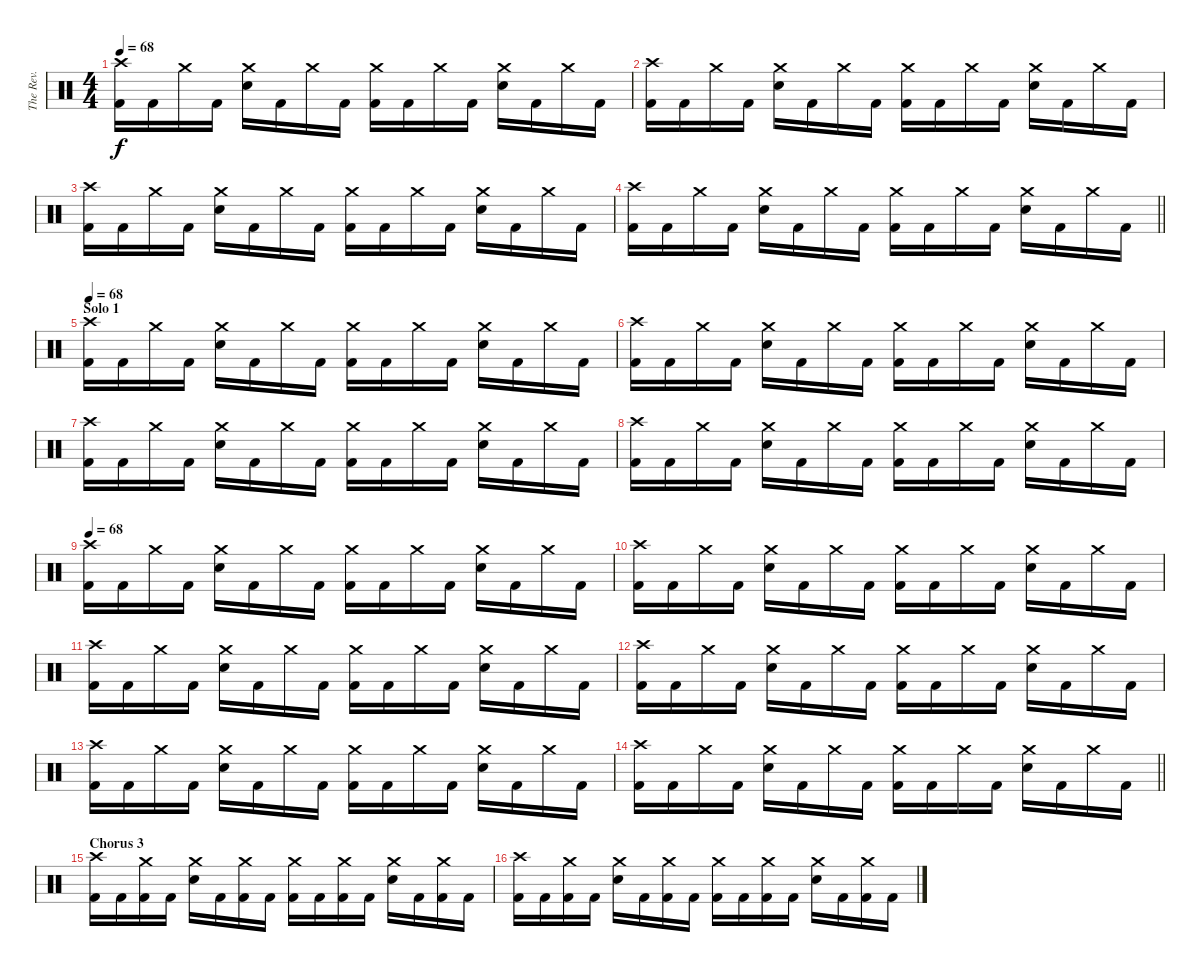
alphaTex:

\track ("The Rev." "The Rev.") {instrument percussion}
\staff {score}
\articulation defaults
\ts (4 4)
\tempo 68
\clef neutral
\ks c
("Crash high (hit)" "Kick (hit) 2").16{dy f} "Kick (hit) 2".16 "Crash medium (hit)".16 "Kick (hit) 2".16 ("Crash medium (hit)" "Electric Snare (hit)").16 "Kick (hit) 2".16 "Crash medium (hit)".16 "Kick (hit) 2".16 ("Crash medium (hit)" "Kick (hit) 2").16 "Kick (hit) 2".16 "Crash medium (hit)".16 "Kick (hit) 2".16 ("Crash medium (hit)" "Electric Snare (hit)").16 "Kick (hit) 2".16 "Crash medium (hit)".16 "Kick (hit) 2".16 |
("Crash high (hit)" "Kick (hit) 2").16 "Kick (hit) 2".16 "Crash medium (hit)".16 "Kick (hit) 2".16 ("Crash medium (hit)" "Electric Snare (hit)").16 "Kick (hit) 2".16 "Crash medium (hit)".16 "Kick (hit) 2".16 ("Crash medium (hit)" "Kick (hit) 2").16 "Kick (hit) 2".16 "Crash medium (hit)".16 "Kick (hit) 2".16 ("Crash medium (hit)" "Electric Snare (hit)").16 "Kick (hit) 2".16 "Crash medium (hit)".16 "Kick (hit) 2".16 |
("Crash high (hit)" "Kick (hit) 2").16 "Kick (hit) 2".16 "Crash medium (hit)".16 "Kick (hit) 2".16 ("Crash medium (hit)" "Electric Snare (hit)").16 "Kick (hit) 2".16 "Crash medium (hit)".16 "Kick (hit) 2".16 ("Crash medium (hit)" "Kick (hit) 2").16 "Kick (hit) 2".16 "Crash medium (hit)".16 "Kick (hit) 2".16 ("Crash medium (hit)" "Electric Snare (hit)").16 "Kick (hit) 2".16 "Crash medium (hit)".16 "Kick (hit) 2".16 |
\barLineRight lightlight
("Crash high (hit)" "Kick (hit) 2").16 "Kick (hit) 2".16 "Crash medium (hit)".16 "Kick (hit) 2".16 ("Crash medium (hit)" "Electric Snare (hit)").16 "Kick (hit) 2".16 "Crash medium (hit)".16 "Kick (hit) 2".16 ("Crash medium (hit)" "Kick (hit) 2").16 "Kick (hit) 2".16 "Crash medium (hit)".16 "Kick (hit) 2".16 ("Crash medium (hit)" "Electric Snare (hit)").16 "Kick (hit) 2".16 "Crash medium (hit)".16 "Kick (hit) 2".16 |
\section ("" "Solo 1")
\tempo 68
("Crash high (hit)" "Kick (hit) 2").16 "Kick (hit) 2".16 "Crash medium (hit)".16 "Kick (hit) 2".16 ("Crash medium (hit)" "Electric Snare (hit)").16 "Kick (hit) 2".16 "Crash medium (hit)".16 "Kick (hit) 2".16 ("Crash medium (hit)" "Kick (hit) 2").16 "Kick (hit) 2".16 "Crash medium (hit)".16 "Kick (hit) 2".16 ("Crash medium (hit)" "Electric Snare (hit)").16 "Kick (hit) 2".16 "Crash medium (hit)".16 "Kick (hit) 2".16 |
("Crash high (hit)" "Kick (hit) 2").16 "Kick (hit) 2".16 "Crash medium (hit)".16 "Kick (hit) 2".16 ("Crash medium (hit)" "Electric Snare (hit)").16 "Kick (hit) 2".16 "Crash medium (hit)".16 "Kick (hit) 2".16 ("Crash medium (hit)" "Kick (hit) 2").16 "Kick (hit) 2".16 "Crash medium (hit)".16 "Kick (hit) 2".16 ("Crash medium (hit)" "Electric Snare (hit)").16 "Kick (hit) 2".16 "Crash medium (hit)".16 "Kick (hit) 2".16 |
("Crash high (hit)" "Kick (hit) 2").16 "Kick (hit) 2".16 "Crash medium (hit)".16 "Kick (hit) 2".16 ("Crash medium (hit)" "Electric Snare (hit)").16 "Kick (hit) 2".16 "Crash medium (hit)".16 "Kick (hit) 2".16 ("Crash medium (hit)" "Kick (hit) 2").16 "Kick (hit) 2".16 "Crash medium (hit)".16 "Kick (hit) 2".16 ("Crash medium (hit)" "Electric Snare (hit)").16 "Kick (hit) 2".16 "Crash medium (hit)".16 "Kick (hit) 2".16 |
("Crash high (hit)" "Kick (hit) 2").16 "Kick (hit) 2".16 "Crash medium (hit)".16 "Kick (hit) 2".16 ("Crash medium (hit)" "Electric Snare (hit)").16 "Kick (hit) 2".16 "Crash medium (hit)".16 "Kick (hit) 2".16 ("Crash medium (hit)" "Kick (hit) 2").16 "Kick (hit) 2".16 "Crash medium (hit)".16 "Kick (hit) 2".16 ("Crash medium (hit)" "Electric Snare (hit)").16 "Kick (hit) 2".16 "Crash medium (hit)".16 "Kick (hit) 2".16 |
\tempo 68
("Crash high (hit)" "Kick (hit) 2").16 "Kick (hit) 2".16 "Crash medium (hit)".16 "Kick (hit) 2".16 ("Crash medium (hit)" "Electric Snare (hit)").16 "Kick (hit) 2".16 "Crash medium (hit)".16 "Kick (hit) 2".16 ("Crash medium (hit)" "Kick (hit) 2").16 "Kick (hit) 2".16 "Crash medium (hit)".16 "Kick (hit) 2".16 ("Crash medium (hit)" "Electric Snare (hit)").16 "Kick (hit) 2".16 "Crash medium (hit)".16 "Kick (hit) 2".16 |
("Crash high (hit)" "Kick (hit) 2").16 "Kick (hit) 2".16 "Crash medium (hit)".16 "Kick (hit) 2".16 ("Crash medium (hit)" "Electric Snare (hit)").16 "Kick (hit) 2".16 "Crash medium (hit)".16 "Kick (hit) 2".16 ("Crash medium (hit)" "Kick (hit) 2").16 "Kick (hit) 2".16 "Crash medium (hit)".16 "Kick (hit) 2".16 ("Crash medium (hit)" "Electric Snare (hit)").16 "Kick (hit) 2".16 "Crash medium (hit)".16 "Kick (hit) 2".16 |
("Crash high (hit)" "Kick (hit) 2").16 "Kick (hit) 2".16 "Crash medium (hit)".16 "Kick (hit) 2".16 ("Crash medium (hit)" "Electric Snare (hit)").16 "Kick (hit) 2".16 "Crash medium (hit)".16 "Kick (hit) 2".16 ("Crash medium (hit)" "Kick (hit) 2").16 "Kick (hit) 2".16 "Crash medium (hit)".16 "Kick (hit) 2".16 ("Crash medium (hit)" "Electric Snare (hit)").16 "Kick (hit) 2".16 "Crash medium (hit)".16 "Kick (hit) 2".16 |
("Crash high (hit)" "Kick (hit) 2").16 "Kick (hit) 2".16 "Crash medium (hit)".16 "Kick (hit) 2".16 ("Crash medium (hit)" "Electric Snare (hit)").16 "Kick (hit) 2".16 "Crash medium (hit)".16 "Kick (hit) 2".16 ("Crash medium (hit)" "Kick (hit) 2").16 "Kick (hit) 2".16 "Crash medium (hit)".16 "Kick (hit) 2".16 ("Crash medium (hit)" "Electric Snare (hit)").16 "Kick (hit) 2".16 "Crash medium (hit)".16 "Kick (hit) 2".16 |
("Crash high (hit)" "Kick (hit) 2").16 "Kick (hit) 2".16 "Crash medium (hit)".16 "Kick (hit) 2".16 ("Crash medium (hit)" "Electric Snare (hit)").16 "Kick (hit) 2".16 "Crash medium (hit)".16 "Kick (hit) 2".16 ("Crash medium (hit)" "Kick (hit) 2").16 "Kick (hit) 2".16 "Crash medium (hit)".16 "Kick (hit) 2".16 ("Crash medium (hit)" "Electric Snare (hit)").16 "Kick (hit) 2".16 "Crash medium (hit)".16 "Kick (hit) 2".16 |
\barLineRight lightlight
("Crash high (hit)" "Kick (hit) 2").16 "Kick (hit) 2".16 "Crash medium (hit)".16 "Kick (hit) 2".16 ("Crash medium (hit)" "Electric Snare (hit)").16 "Kick (hit) 2".16 "Crash medium (hit)".16 "Kick (hit) 2".16 ("Crash medium (hit)" "Kick (hit) 2").16 "Kick (hit) 2".16 "Crash medium (hit)".16 "Kick (hit) 2".16 ("Crash medium (hit)" "Electric Snare (hit)").16 "Kick (hit) 2".16 "Crash medium (hit)".16 "Kick (hit) 2".16 |
\section ("" "Chorus 3")
("Crash high (hit)" "Kick (hit) 2").16 "Kick (hit) 2".16 ("Crash medium (hit)" "Kick (hit) 2").16 "Kick (hit) 2".16 ("Crash medium (hit)" "Electric Snare (hit)").16 "Kick (hit) 2".16 ("Crash medium (hit)" "Kick (hit) 2").16 "Kick (hit) 2".16 ("Crash medium (hit)" "Kick (hit) 2").16 "Kick (hit) 2".16 ("Crash medium (hit)" "Kick (hit) 2").16 "Kick (hit) 2".16 ("Crash medium (hit)" "Electric Snare (hit)").16 "Kick (hit) 2".16 ("Crash medium (hit)" "Kick (hit) 2").16 "Kick (hit) 2".16 |
("Crash high (hit)" "Kick (hit) 2").16 "Kick (hit) 2".16 ("Crash medium (hit)" "Kick (hit) 2").16 "Kick (hit) 2".16 ("Crash medium (hit)" "Electric Snare (hit)").16 "Kick (hit) 2".16 ("Crash medium (hit)" "Kick (hit) 2").16 "Kick (hit) 2".16 ("Crash medium (hit)" "Kick (hit) 2").16 "Kick (hit) 2".16 ("Crash medium (hit)" "Kick (hit) 2").16 "Kick (hit) 2".16 ("Crash medium (hit)" "Electric Snare (hit)").16 "Kick (hit) 2".16 ("Crash medium (hit)" "Kick (hit) 2").16 "Kick (hit) 2".16
